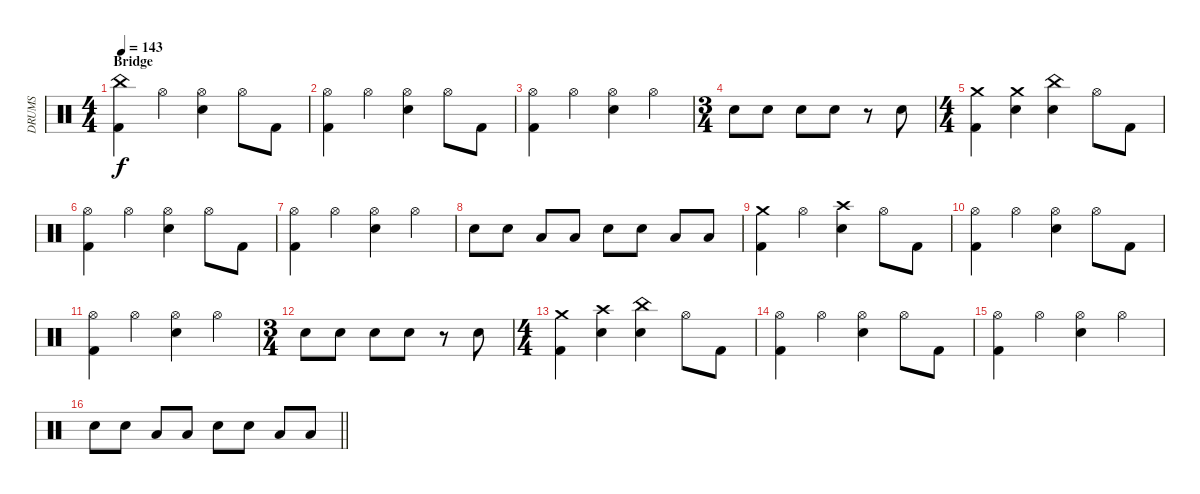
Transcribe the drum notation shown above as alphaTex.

\track ("DRUMS" "DRUMS") {instrument percussion}
\staff {score}
\articulation defaults
\ts (4 4)
\section ("" "Bridge")
\tempo 143
\clef neutral
\ks c
("China (hit)" "Kick (hit) 2").4{dy f} "Hi-Hat (open)".4 ("Hi-Hat (open)" "Snare (hit) 2").4 "Hi-Hat (open)".8 "Kick (hit) 2".8 |
("Hi-Hat (open)" "Kick (hit) 2").4 "Hi-Hat (open)".4 ("Hi-Hat (open)" "Snare (hit) 2").4 "Hi-Hat (open)".8 "Kick (hit) 2".8 |
("Hi-Hat (open)" "Kick (hit) 2").4 "Hi-Hat (open)".4 ("Hi-Hat (open)" "Snare (hit) 2").4 "Hi-Hat (open)".4 |
\ts (3 4)
"Snare (hit) 2".8 "Snare (hit) 2".8 "Snare (hit) 2".8 "Snare (hit) 2".8 r.8 "Snare (hit) 2".8 |
\ts (4 4)
("Crash medium (hit)" "Kick (hit) 2").4 ("Crash medium (hit)" "Snare (hit) 2").4 ("China (hit)" "Snare (hit) 2").4 "Hi-Hat (open)".8 "Kick (hit) 2".8 |
("Hi-Hat (open)" "Kick (hit) 2").4 "Hi-Hat (open)".4 ("Hi-Hat (open)" "Snare (hit) 2").4 "Hi-Hat (open)".8 "Kick (hit) 2".8 |
("Hi-Hat (open)" "Kick (hit) 2").4 "Hi-Hat (open)".4 ("Hi-Hat (open)" "Snare (hit) 2").4 "Hi-Hat (open)".4 |
"Snare (hit) 2".8 "Snare (hit) 2".8 "Low Floor Tom (hit)".8 "Low Floor Tom (hit)".8 "Snare (hit) 2".8 "Snare (hit) 2".8 "Low Floor Tom (hit)".8 "Low Floor Tom (hit)".8 |
("Crash medium (hit)" "Kick (hit) 2").4 "Hi-Hat (open)".4 ("Crash high (hit)" "Snare (hit) 2").4 "Hi-Hat (open)".8 "Kick (hit) 2".8 |
("Hi-Hat (open)" "Kick (hit) 2").4 "Hi-Hat (open)".4 ("Hi-Hat (open)" "Snare (hit) 2").4 "Hi-Hat (open)".8 "Kick (hit) 2".8 |
("Hi-Hat (open)" "Kick (hit) 2").4 "Hi-Hat (open)".4 ("Hi-Hat (open)" "Snare (hit) 2").4 "Hi-Hat (open)".4 |
\ts (3 4)
"Snare (hit) 2".8 "Snare (hit) 2".8 "Snare (hit) 2".8 "Snare (hit) 2".8 r.8 "Snare (hit) 2".8 |
\ts (4 4)
("Crash medium (hit)" "Kick (hit) 2").4 ("Crash high (hit)" "Snare (hit) 2").4 ("China (hit)" "Snare (hit) 2").4 "Hi-Hat (open)".8 "Kick (hit) 2".8 |
("Hi-Hat (open)" "Kick (hit) 2").4 "Hi-Hat (open)".4 ("Hi-Hat (open)" "Snare (hit) 2").4 "Hi-Hat (open)".8 "Kick (hit) 2".8 |
("Hi-Hat (open)" "Kick (hit) 2").4 "Hi-Hat (open)".4 ("Hi-Hat (open)" "Snare (hit) 2").4 "Hi-Hat (open)".4 |
\barLineRight lightlight "Snare (hit) 2".8 "Snare (hit) 2".8 "Low Floor Tom (hit)".8 "Low Floor Tom (hit)".8 "Snare (hit) 2".8 "Snare (hit) 2".8 "Low Floor Tom (hit)".8 "Low Floor Tom (hit)".8
